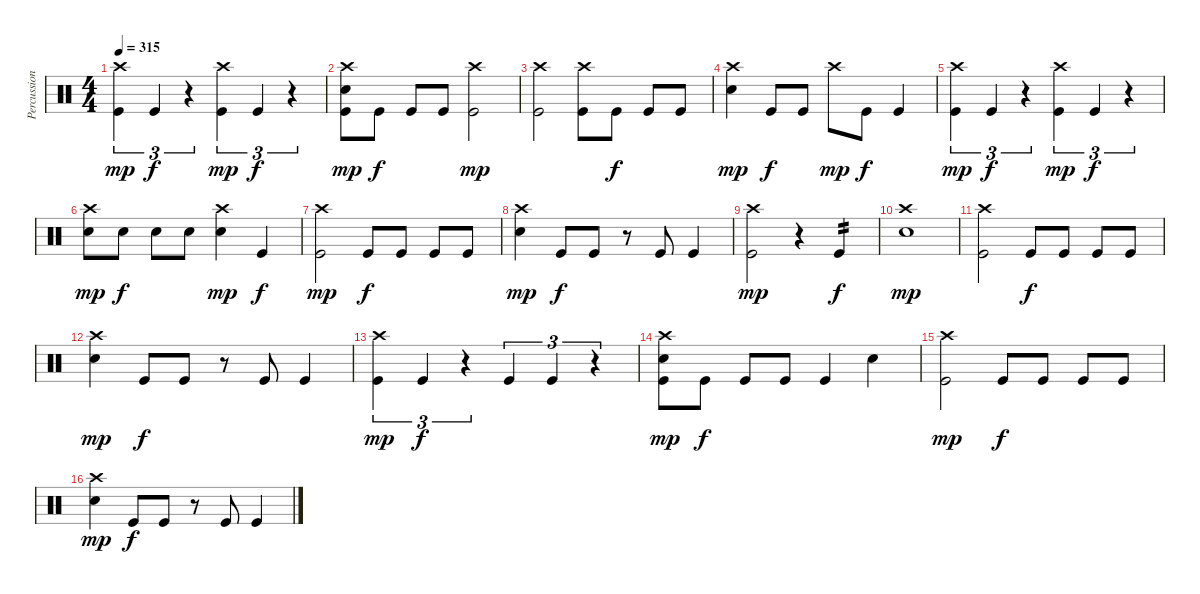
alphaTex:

\track ("Percussion" "Percussion") {instrument percussion}
\staff {score}
\articulation defaults
\ts (4 4)
\tempo 315
\clef neutral
\ks c
("Crash high (hit)" "Kick (hit)").4{tu (3 2) dy mp} "Kick (hit)".4{tu (3 2) dy f} r.4{tu (3 2)} ("Crash high (hit)" "Kick (hit)").4{tu (3 2) dy mp} "Kick (hit)".4{tu (3 2) dy f} r.4{tu (3 2)} |
("Crash high (hit)" "Electric Snare (hit)" "Kick (hit)").8{dy mp} "Kick (hit)".8{dy f} "Kick (hit)".8 "Kick (hit)".8 ("Crash high (hit)" "Kick (hit)").2{dy mp} |
("Crash high (hit)" "Kick (hit)").2 ("Crash high (hit)" "Kick (hit)").8 "Kick (hit)".8{dy f} "Kick (hit)".8 "Kick (hit)".8 |
("Crash high (hit)" "Electric Snare (hit)").4{dy mp} "Kick (hit)".8{dy f} "Kick (hit)".8 "Crash high (hit)".8{dy mp} "Kick (hit)".8{dy f} "Kick (hit)".4 |
("Crash high (hit)" "Kick (hit)").4{tu (3 2) dy mp} "Kick (hit)".4{tu (3 2) dy f} r.4{tu (3 2)} ("Crash high (hit)" "Kick (hit)").4{tu (3 2) dy mp} "Kick (hit)".4{tu (3 2) dy f} r.4{tu (3 2)} |
("Crash high (hit)" "Electric Snare (hit)").8{dy mp} "Electric Snare (hit)".8{dy f} "Electric Snare (hit)".8 "Electric Snare (hit)".8 ("Crash high (hit)" "Electric Snare (hit)").4{dy mp} "Kick (hit)".4{dy f} |
("Crash high (hit)" "Kick (hit)").2{dy mp} "Kick (hit)".8{dy f} "Kick (hit)".8 "Kick (hit)".8 "Kick (hit)".8 |
("Crash high (hit)" "Electric Snare (hit)").4{dy mp} "Kick (hit)".8{dy f} "Kick (hit)".8 r.8 "Kick (hit)".8 "Kick (hit)".4 |
("Crash high (hit)" "Kick (hit)").2{dy mp} r.4 "Kick (hit)".4{tp 2 dy f} |
("Crash high (hit)" "Electric Snare (hit)").1{dy mp} |
("Crash high (hit)" "Kick (hit)").2 "Kick (hit)".8{dy f} "Kick (hit)".8 "Kick (hit)".8 "Kick (hit)".8 |
("Crash high (hit)" "Electric Snare (hit)").4{dy mp} "Kick (hit)".8{dy f} "Kick (hit)".8 r.8 "Kick (hit)".8 "Kick (hit)".4 |
("Crash high (hit)" "Kick (hit)").4{tu (3 2) dy mp} "Kick (hit)".4{tu (3 2) dy f} r.4{tu (3 2)} "Kick (hit)".4{tu (3 2)} "Kick (hit)".4{tu (3 2)} r.4{tu (3 2)} |
("Crash high (hit)" "Electric Snare (hit)" "Kick (hit)").8{dy mp} "Kick (hit)".8{dy f} "Kick (hit)".8 "Kick (hit)".8 "Kick (hit)".4 "Electric Snare (hit)".4 |
("Crash high (hit)" "Kick (hit)").2{dy mp} "Kick (hit)".8{dy f} "Kick (hit)".8 "Kick (hit)".8 "Kick (hit)".8 |
("Crash high (hit)" "Electric Snare (hit)").4{dy mp} "Kick (hit)".8{dy f} "Kick (hit)".8 r.8 "Kick (hit)".8 "Kick (hit)".4
